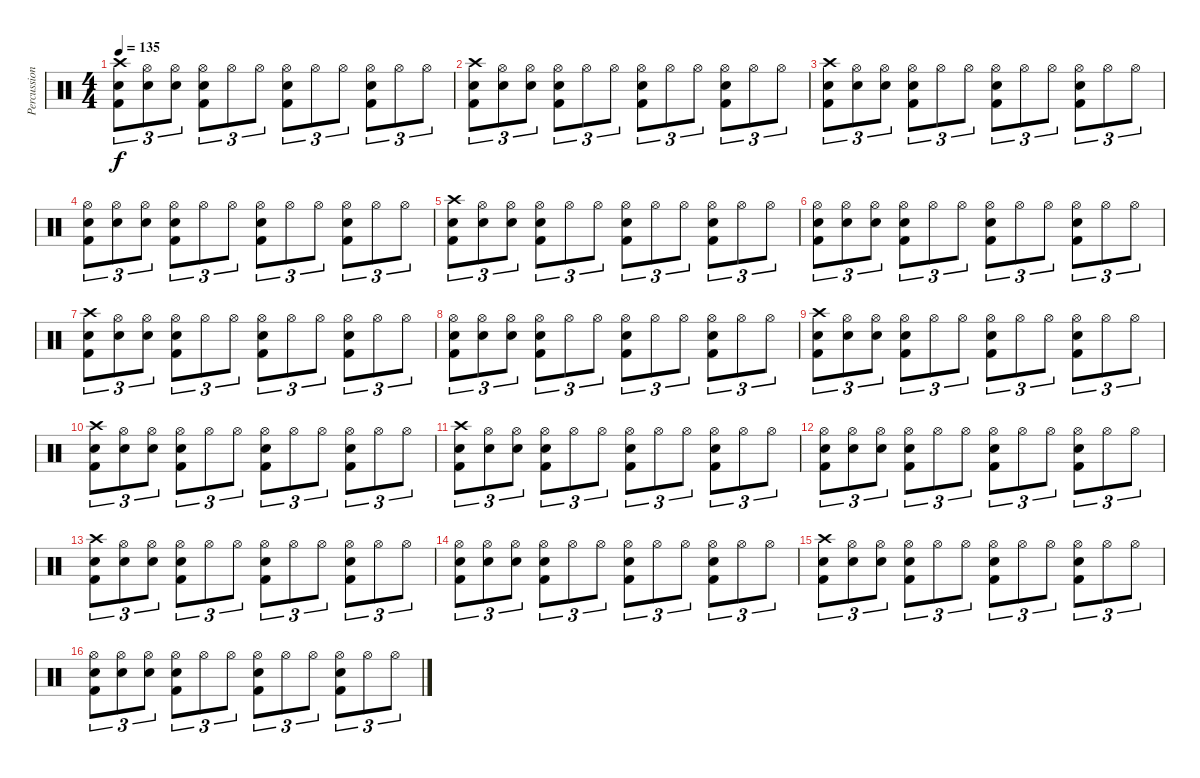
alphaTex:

\track ("Percussion" "Percussion") {instrument percussion}
\staff {score}
\articulation defaults
\ts (4 4)
\tempo 135
\clef neutral
\ks c
("Crash high (hit)" "Snare (hit) 2" "Kick (hit) 2").8{tu (3 2) dy f} ("Hi-Hat (open)" "Snare (hit) 2").8{tu (3 2)} ("Hi-Hat (open)" "Snare (hit) 2").8{tu (3 2)} ("Hi-Hat (open)" "Snare (hit) 2" "Kick (hit) 2").8{tu (3 2)} "Hi-Hat (open)".8{tu (3 2)} "Hi-Hat (open)".8{tu (3 2)} ("Hi-Hat (open)" "Snare (hit) 2" "Kick (hit) 2").8{tu (3 2)} "Hi-Hat (open)".8{tu (3 2)} "Hi-Hat (open)".8{tu (3 2)} ("Hi-Hat (open)" "Snare (hit) 2" "Kick (hit) 2").8{tu (3 2)} "Hi-Hat (open)".8{tu (3 2)} "Hi-Hat (open)".8{tu (3 2)} |
("Crash high (hit)" "Snare (hit) 2" "Kick (hit) 2").8{tu (3 2)} ("Hi-Hat (open)" "Snare (hit) 2").8{tu (3 2)} ("Hi-Hat (open)" "Snare (hit) 2").8{tu (3 2)} ("Hi-Hat (open)" "Snare (hit) 2" "Kick (hit) 2").8{tu (3 2)} "Hi-Hat (open)".8{tu (3 2)} "Hi-Hat (open)".8{tu (3 2)} ("Hi-Hat (open)" "Snare (hit) 2" "Kick (hit) 2").8{tu (3 2)} "Hi-Hat (open)".8{tu (3 2)} "Hi-Hat (open)".8{tu (3 2)} ("Hi-Hat (open)" "Snare (hit) 2" "Kick (hit) 2").8{tu (3 2)} "Hi-Hat (open)".8{tu (3 2)} "Hi-Hat (open)".8{tu (3 2)} |
("Crash high (hit)" "Snare (hit) 2" "Kick (hit) 2").8{tu (3 2)} ("Hi-Hat (open)" "Snare (hit) 2").8{tu (3 2)} ("Hi-Hat (open)" "Snare (hit) 2").8{tu (3 2)} ("Hi-Hat (open)" "Snare (hit) 2" "Kick (hit) 2").8{tu (3 2)} "Hi-Hat (open)".8{tu (3 2)} "Hi-Hat (open)".8{tu (3 2)} ("Hi-Hat (open)" "Snare (hit) 2" "Kick (hit) 2").8{tu (3 2)} "Hi-Hat (open)".8{tu (3 2)} "Hi-Hat (open)".8{tu (3 2)} ("Hi-Hat (open)" "Snare (hit) 2" "Kick (hit) 2").8{tu (3 2)} "Hi-Hat (open)".8{tu (3 2)} "Hi-Hat (open)".8{tu (3 2)} |
("Hi-Hat (open)" "Snare (hit) 2" "Kick (hit) 2").8{tu (3 2)} ("Hi-Hat (open)" "Snare (hit) 2").8{tu (3 2)} ("Hi-Hat (open)" "Snare (hit) 2").8{tu (3 2)} ("Hi-Hat (open)" "Snare (hit) 2" "Kick (hit) 2").8{tu (3 2)} "Hi-Hat (open)".8{tu (3 2)} "Hi-Hat (open)".8{tu (3 2)} ("Hi-Hat (open)" "Snare (hit) 2" "Kick (hit) 2").8{tu (3 2)} "Hi-Hat (open)".8{tu (3 2)} "Hi-Hat (open)".8{tu (3 2)} ("Hi-Hat (open)" "Snare (hit) 2" "Kick (hit) 2").8{tu (3 2)} "Hi-Hat (open)".8{tu (3 2)} "Hi-Hat (open)".8{tu (3 2)} |
("Crash high (hit)" "Snare (hit) 2" "Kick (hit) 2").8{tu (3 2)} ("Hi-Hat (open)" "Snare (hit) 2").8{tu (3 2)} ("Hi-Hat (open)" "Snare (hit) 2").8{tu (3 2)} ("Hi-Hat (open)" "Snare (hit) 2" "Kick (hit) 2").8{tu (3 2)} "Hi-Hat (open)".8{tu (3 2)} "Hi-Hat (open)".8{tu (3 2)} ("Hi-Hat (open)" "Snare (hit) 2" "Kick (hit) 2").8{tu (3 2)} "Hi-Hat (open)".8{tu (3 2)} "Hi-Hat (open)".8{tu (3 2)} ("Hi-Hat (open)" "Snare (hit) 2" "Kick (hit) 2").8{tu (3 2)} "Hi-Hat (open)".8{tu (3 2)} "Hi-Hat (open)".8{tu (3 2)} |
("Hi-Hat (open)" "Snare (hit) 2" "Kick (hit) 2").8{tu (3 2)} ("Hi-Hat (open)" "Snare (hit) 2").8{tu (3 2)} ("Hi-Hat (open)" "Snare (hit) 2").8{tu (3 2)} ("Hi-Hat (open)" "Snare (hit) 2" "Kick (hit) 2").8{tu (3 2)} "Hi-Hat (open)".8{tu (3 2)} "Hi-Hat (open)".8{tu (3 2)} ("Hi-Hat (open)" "Snare (hit) 2" "Kick (hit) 2").8{tu (3 2)} "Hi-Hat (open)".8{tu (3 2)} "Hi-Hat (open)".8{tu (3 2)} ("Hi-Hat (open)" "Snare (hit) 2" "Kick (hit) 2").8{tu (3 2)} "Hi-Hat (open)".8{tu (3 2)} "Hi-Hat (open)".8{tu (3 2)} |
("Crash high (hit)" "Snare (hit) 2" "Kick (hit) 2").8{tu (3 2)} ("Hi-Hat (open)" "Snare (hit) 2").8{tu (3 2)} ("Hi-Hat (open)" "Snare (hit) 2").8{tu (3 2)} ("Hi-Hat (open)" "Snare (hit) 2" "Kick (hit) 2").8{tu (3 2)} "Hi-Hat (open)".8{tu (3 2)} "Hi-Hat (open)".8{tu (3 2)} ("Hi-Hat (open)" "Snare (hit) 2" "Kick (hit) 2").8{tu (3 2)} "Hi-Hat (open)".8{tu (3 2)} "Hi-Hat (open)".8{tu (3 2)} ("Hi-Hat (open)" "Snare (hit) 2" "Kick (hit) 2").8{tu (3 2)} "Hi-Hat (open)".8{tu (3 2)} "Hi-Hat (open)".8{tu (3 2)} |
("Hi-Hat (open)" "Snare (hit) 2" "Kick (hit) 2").8{tu (3 2)} ("Hi-Hat (open)" "Snare (hit) 2").8{tu (3 2)} ("Hi-Hat (open)" "Snare (hit) 2").8{tu (3 2)} ("Hi-Hat (open)" "Snare (hit) 2" "Kick (hit) 2").8{tu (3 2)} "Hi-Hat (open)".8{tu (3 2)} "Hi-Hat (open)".8{tu (3 2)} ("Hi-Hat (open)" "Snare (hit) 2" "Kick (hit) 2").8{tu (3 2)} "Hi-Hat (open)".8{tu (3 2)} "Hi-Hat (open)".8{tu (3 2)} ("Hi-Hat (open)" "Snare (hit) 2" "Kick (hit) 2").8{tu (3 2)} "Hi-Hat (open)".8{tu (3 2)} "Hi-Hat (open)".8{tu (3 2)} |
("Crash high (hit)" "Snare (hit) 2" "Kick (hit) 2").8{tu (3 2)} ("Hi-Hat (open)" "Snare (hit) 2").8{tu (3 2)} ("Hi-Hat (open)" "Snare (hit) 2").8{tu (3 2)} ("Hi-Hat (open)" "Snare (hit) 2" "Kick (hit) 2").8{tu (3 2)} "Hi-Hat (open)".8{tu (3 2)} "Hi-Hat (open)".8{tu (3 2)} ("Hi-Hat (open)" "Snare (hit) 2" "Kick (hit) 2").8{tu (3 2)} "Hi-Hat (open)".8{tu (3 2)} "Hi-Hat (open)".8{tu (3 2)} ("Hi-Hat (open)" "Snare (hit) 2" "Kick (hit) 2").8{tu (3 2)} "Hi-Hat (open)".8{tu (3 2)} "Hi-Hat (open)".8{tu (3 2)} |
("Crash high (hit)" "Snare (hit) 2" "Kick (hit) 2").8{tu (3 2)} ("Hi-Hat (open)" "Snare (hit) 2").8{tu (3 2)} ("Hi-Hat (open)" "Snare (hit) 2").8{tu (3 2)} ("Hi-Hat (open)" "Snare (hit) 2" "Kick (hit) 2").8{tu (3 2)} "Hi-Hat (open)".8{tu (3 2)} "Hi-Hat (open)".8{tu (3 2)} ("Hi-Hat (open)" "Snare (hit) 2" "Kick (hit) 2").8{tu (3 2)} "Hi-Hat (open)".8{tu (3 2)} "Hi-Hat (open)".8{tu (3 2)} ("Hi-Hat (open)" "Snare (hit) 2" "Kick (hit) 2").8{tu (3 2)} "Hi-Hat (open)".8{tu (3 2)} "Hi-Hat (open)".8{tu (3 2)} |
("Crash high (hit)" "Snare (hit) 2" "Kick (hit) 2").8{tu (3 2)} ("Hi-Hat (open)" "Snare (hit) 2").8{tu (3 2)} ("Hi-Hat (open)" "Snare (hit) 2").8{tu (3 2)} ("Hi-Hat (open)" "Snare (hit) 2" "Kick (hit) 2").8{tu (3 2)} "Hi-Hat (open)".8{tu (3 2)} "Hi-Hat (open)".8{tu (3 2)} ("Hi-Hat (open)" "Snare (hit) 2" "Kick (hit) 2").8{tu (3 2)} "Hi-Hat (open)".8{tu (3 2)} "Hi-Hat (open)".8{tu (3 2)} ("Hi-Hat (open)" "Snare (hit) 2" "Kick (hit) 2").8{tu (3 2)} "Hi-Hat (open)".8{tu (3 2)} "Hi-Hat (open)".8{tu (3 2)} |
("Hi-Hat (open)" "Snare (hit) 2" "Kick (hit) 2").8{tu (3 2)} ("Hi-Hat (open)" "Snare (hit) 2").8{tu (3 2)} ("Hi-Hat (open)" "Snare (hit) 2").8{tu (3 2)} ("Hi-Hat (open)" "Snare (hit) 2" "Kick (hit) 2").8{tu (3 2)} "Hi-Hat (open)".8{tu (3 2)} "Hi-Hat (open)".8{tu (3 2)} ("Hi-Hat (open)" "Snare (hit) 2" "Kick (hit) 2").8{tu (3 2)} "Hi-Hat (open)".8{tu (3 2)} "Hi-Hat (open)".8{tu (3 2)} ("Hi-Hat (open)" "Snare (hit) 2" "Kick (hit) 2").8{tu (3 2)} "Hi-Hat (open)".8{tu (3 2)} "Hi-Hat (open)".8{tu (3 2)} |
("Crash high (hit)" "Snare (hit) 2" "Kick (hit) 2").8{tu (3 2)} ("Hi-Hat (open)" "Snare (hit) 2").8{tu (3 2)} ("Hi-Hat (open)" "Snare (hit) 2").8{tu (3 2)} ("Hi-Hat (open)" "Snare (hit) 2" "Kick (hit) 2").8{tu (3 2)} "Hi-Hat (open)".8{tu (3 2)} "Hi-Hat (open)".8{tu (3 2)} ("Hi-Hat (open)" "Snare (hit) 2" "Kick (hit) 2").8{tu (3 2)} "Hi-Hat (open)".8{tu (3 2)} "Hi-Hat (open)".8{tu (3 2)} ("Hi-Hat (open)" "Snare (hit) 2" "Kick (hit) 2").8{tu (3 2)} "Hi-Hat (open)".8{tu (3 2)} "Hi-Hat (open)".8{tu (3 2)} |
("Hi-Hat (open)" "Snare (hit) 2" "Kick (hit) 2").8{tu (3 2)} ("Hi-Hat (open)" "Snare (hit) 2").8{tu (3 2)} ("Hi-Hat (open)" "Snare (hit) 2").8{tu (3 2)} ("Hi-Hat (open)" "Snare (hit) 2" "Kick (hit) 2").8{tu (3 2)} "Hi-Hat (open)".8{tu (3 2)} "Hi-Hat (open)".8{tu (3 2)} ("Hi-Hat (open)" "Snare (hit) 2" "Kick (hit) 2").8{tu (3 2)} "Hi-Hat (open)".8{tu (3 2)} "Hi-Hat (open)".8{tu (3 2)} ("Hi-Hat (open)" "Snare (hit) 2" "Kick (hit) 2").8{tu (3 2)} "Hi-Hat (open)".8{tu (3 2)} "Hi-Hat (open)".8{tu (3 2)} |
("Crash high (hit)" "Snare (hit) 2" "Kick (hit) 2").8{tu (3 2)} ("Hi-Hat (open)" "Snare (hit) 2").8{tu (3 2)} ("Hi-Hat (open)" "Snare (hit) 2").8{tu (3 2)} ("Hi-Hat (open)" "Snare (hit) 2" "Kick (hit) 2").8{tu (3 2)} "Hi-Hat (open)".8{tu (3 2)} "Hi-Hat (open)".8{tu (3 2)} ("Hi-Hat (open)" "Snare (hit) 2" "Kick (hit) 2").8{tu (3 2)} "Hi-Hat (open)".8{tu (3 2)} "Hi-Hat (open)".8{tu (3 2)} ("Hi-Hat (open)" "Snare (hit) 2" "Kick (hit) 2").8{tu (3 2)} "Hi-Hat (open)".8{tu (3 2)} "Hi-Hat (open)".8{tu (3 2)} |
("Hi-Hat (open)" "Snare (hit) 2" "Kick (hit) 2").8{tu (3 2)} ("Hi-Hat (open)" "Snare (hit) 2").8{tu (3 2)} ("Hi-Hat (open)" "Snare (hit) 2").8{tu (3 2)} ("Hi-Hat (open)" "Snare (hit) 2" "Kick (hit) 2").8{tu (3 2)} "Hi-Hat (open)".8{tu (3 2)} "Hi-Hat (open)".8{tu (3 2)} ("Hi-Hat (open)" "Snare (hit) 2" "Kick (hit) 2").8{tu (3 2)} "Hi-Hat (open)".8{tu (3 2)} "Hi-Hat (open)".8{tu (3 2)} ("Hi-Hat (open)" "Snare (hit) 2" "Kick (hit) 2").8{tu (3 2)} "Hi-Hat (open)".8{tu (3 2)} "Hi-Hat (open)".8{tu (3 2)}
